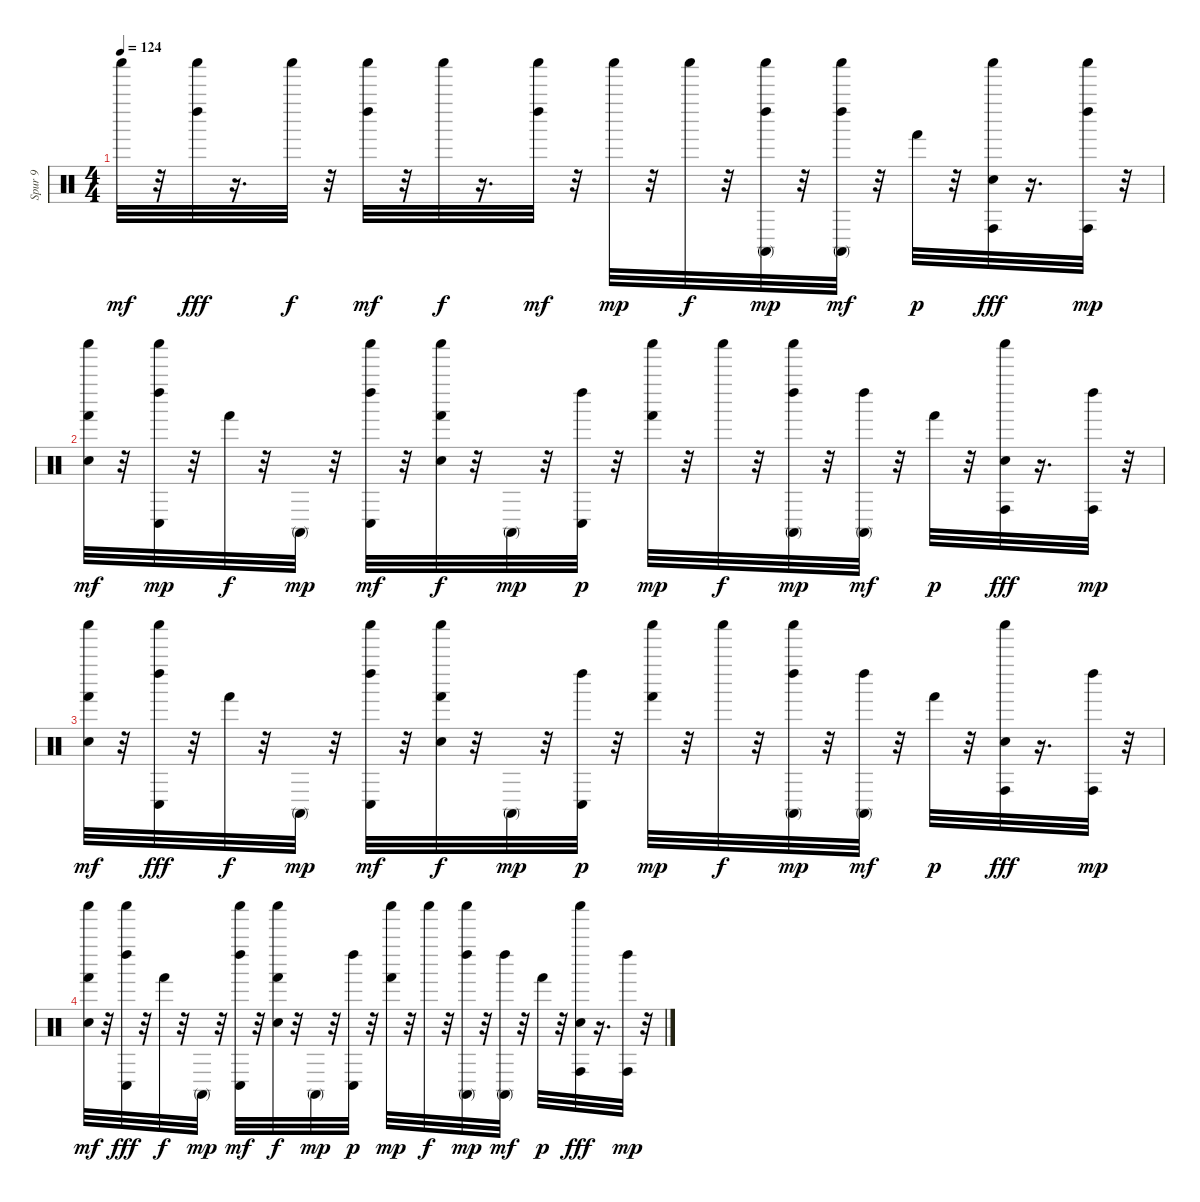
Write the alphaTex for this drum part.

\track ("Spur 9" "Spur 9") {instrument percussion}
\staff {score}
\articulation defaults
\ts (4 4)
\tempo 124
\clef neutral
\ks c "Shaker (hit)".32{dy mf}
r.32 ("Left Maraca (hit)" "Shaker (hit)").32{dy fff} r.16{d} "Shaker (hit)".32{dy f} r.32 ("Left Maraca (hit)" "Shaker (hit)").32{dy mf} r.32 "Shaker (hit)".32{dy f} r.16{d} ("Left Maraca (hit)" "Shaker (hit)").32{dy mf} r.32 "Shaker (hit)".32{dy mp} r.32 "Shaker (hit)".32{dy f} r.32 ("Conga high (mute)" "Left Maraca (hit)" "Shaker (hit)").32{dy mp} r.32 ("Conga high (mute)" "Left Maraca (hit)" "Shaker (hit)").32{dy mf} r.32 "Hand (hit)".32{dy p} r.32 ("Electric Snare (hit)" "Conga high (hit)" "Shaker (hit)").32{dy fff} r.16{d} ("Conga high (hit)" "Left Maraca (hit)" "Shaker (hit)").32{dy mp} r.32 |
("Electric Snare (hit)" "Hand (hit)" "Shaker (hit)").32{dy mf} r.32 ("Shaker (hit)" "Left Maraca (hit)" "Conga low (hit)").32{dy mp} r.32 "Hand (hit)".32{dy f} r.32 "Conga high (mute)".32{dy mp} r.32 ("Conga low (hit)" "Left Maraca (hit)" "Shaker (hit)").32{dy mf} r.32 ("Electric Snare (hit)" "Hand (hit)" "Shaker (hit)").32{dy f} r.32 "Conga high (mute)".32{dy mp} r.32 ("Conga low (hit)" "Left Maraca (hit)").32{dy p} r.32 ("Hand (hit)" "Shaker (hit)").32{dy mp} r.32 "Shaker (hit)".32{dy f} r.32 ("Conga high (mute)" "Left Maraca (hit)" "Shaker (hit)").32{dy mp} r.32 ("Conga high (mute)" "Left Maraca (hit)").32{dy mf} r.32 "Hand (hit)".32{dy p} r.32 ("Electric Snare (hit)" "Conga high (hit)" "Shaker (hit)").32{dy fff} r.16{d} ("Conga high (hit)" "Left Maraca (hit)").32{dy mp} r.32 |
("Electric Snare (hit)" "Hand (hit)" "Shaker (hit)").32{dy mf} r.32 ("Conga low (hit)" "Left Maraca (hit)" "Shaker (hit)").32{dy fff} r.32 "Hand (hit)".32{dy f} r.32 "Conga high (mute)".32{dy mp} r.32 ("Conga low (hit)" "Left Maraca (hit)" "Shaker (hit)").32{dy mf} r.32 ("Electric Snare (hit)" "Hand (hit)" "Shaker (hit)").32{dy f} r.32 "Conga high (mute)".32{dy mp} r.32 ("Conga low (hit)" "Left Maraca (hit)").32{dy p} r.32 ("Hand (hit)" "Shaker (hit)").32{dy mp} r.32 "Shaker (hit)".32{dy f} r.32 ("Conga high (mute)" "Left Maraca (hit)" "Shaker (hit)").32{dy mp} r.32 ("Conga high (mute)" "Left Maraca (hit)").32{dy mf} r.32 "Hand (hit)".32{dy p} r.32 ("Electric Snare (hit)" "Conga high (hit)" "Shaker (hit)").32{dy fff} r.16{d} ("Conga high (hit)" "Left Maraca (hit)").32{dy mp} r.32 |
("Electric Snare (hit)" "Hand (hit)" "Shaker (hit)").32{dy mf} r.32 ("Conga low (hit)" "Left Maraca (hit)" "Shaker (hit)").32{dy fff} r.32 "Hand (hit)".32{dy f} r.32 "Conga high (mute)".32{dy mp} r.32 ("Conga low (hit)" "Left Maraca (hit)" "Shaker (hit)").32{dy mf} r.32 ("Electric Snare (hit)" "Hand (hit)" "Shaker (hit)").32{dy f} r.32 "Conga high (mute)".32{dy mp} r.32 ("Conga low (hit)" "Left Maraca (hit)").32{dy p} r.32 ("Hand (hit)" "Shaker (hit)").32{dy mp} r.32 "Shaker (hit)".32{dy f} r.32 ("Conga high (mute)" "Left Maraca (hit)" "Shaker (hit)").32{dy mp} r.32 ("Conga high (mute)" "Left Maraca (hit)").32{dy mf} r.32 "Hand (hit)".32{dy p} r.32 ("Electric Snare (hit)" "Conga high (hit)" "Shaker (hit)").32{dy fff} r.16{d} ("Conga high (hit)" "Left Maraca (hit)").32{dy mp} r.32
